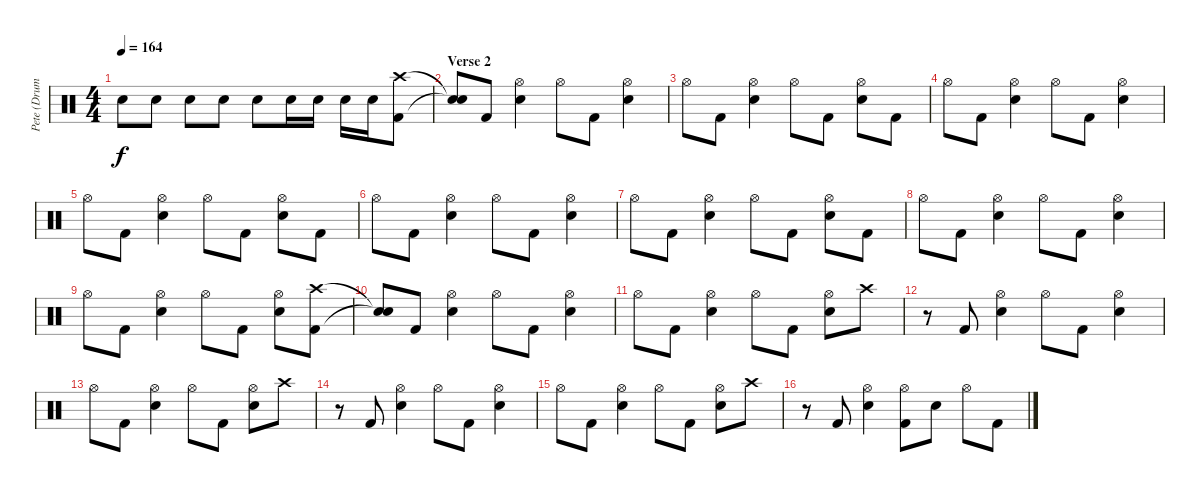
\track ("Pete (Drums)" "Pete (Drum") {instrument percussion}
\staff {score}
\articulation defaults
\ts (4 4)
\tempo 164
\clef neutral
\ks c "Snare (hit) 2".8{dy f} "Snare (hit) 2".8 "Snare (hit) 2".8 "Snare (hit) 2".8 "Snare (hit) 2".8 "Snare (hit) 2".16 "Snare (hit) 2".16 "Snare (hit) 2".16 "Snare (hit) 2".16
("Crash high (hit)" "Kick (hit) 2").8 |
\section ("" "Verse 2")
("Snare (hit)"{t} "Snare (hit)"{t}).8 "Kick (hit) 2".8 ("Hi-Hat (open)" "Snare (hit) 2").4 "Hi-Hat (open)".8 "Kick (hit) 2".8 ("Hi-Hat (open)" "Snare (hit) 2").4 |
"Hi-Hat (open)".8 "Kick (hit) 2".8 ("Hi-Hat (open)" "Snare (hit) 2").4 "Hi-Hat (open)".8 "Kick (hit) 2".8 ("Hi-Hat (open)" "Snare (hit) 2").8 "Kick (hit) 2".8 |
"Hi-Hat (open)".8 "Kick (hit) 2".8 ("Hi-Hat (open)" "Snare (hit) 2").4 "Hi-Hat (open)".8 "Kick (hit) 2".8 ("Hi-Hat (open)" "Snare (hit) 2").4 |
"Hi-Hat (open)".8 "Kick (hit) 2".8 ("Hi-Hat (open)" "Snare (hit) 2").4 "Hi-Hat (open)".8 "Kick (hit) 2".8 ("Hi-Hat (open)" "Snare (hit) 2").8 "Kick (hit) 2".8 |
"Hi-Hat (open)".8 "Kick (hit) 2".8 ("Hi-Hat (open)" "Snare (hit) 2").4 "Hi-Hat (open)".8 "Kick (hit) 2".8 ("Hi-Hat (open)" "Snare (hit) 2").4 |
"Hi-Hat (open)".8 "Kick (hit) 2".8 ("Hi-Hat (open)" "Snare (hit) 2").4 "Hi-Hat (open)".8 "Kick (hit) 2".8 ("Hi-Hat (open)" "Snare (hit) 2").8 "Kick (hit) 2".8 |
"Hi-Hat (open)".8 "Kick (hit) 2".8 ("Hi-Hat (open)" "Snare (hit) 2").4 "Hi-Hat (open)".8 "Kick (hit) 2".8 ("Hi-Hat (open)" "Snare (hit) 2").4 |
"Hi-Hat (open)".8 "Kick (hit) 2".8 ("Hi-Hat (open)" "Snare (hit) 2").4 "Hi-Hat (open)".8 "Kick (hit) 2".8 ("Hi-Hat (open)" "Snare (hit) 2").8 ("Crash high (hit)" "Kick (hit) 2").8 |
("Snare (hit)"{t} "Snare (hit)"{t}).8 "Kick (hit) 2".8 ("Hi-Hat (open)" "Snare (hit) 2").4 "Hi-Hat (open)".8 "Kick (hit) 2".8 ("Hi-Hat (open)" "Snare (hit) 2").4 |
"Hi-Hat (open)".8 "Kick (hit) 2".8 ("Hi-Hat (open)" "Snare (hit) 2").4 "Hi-Hat (open)".8 "Kick (hit) 2".8 ("Hi-Hat (open)" "Snare (hit) 2").8 "Crash high (hit)".8 |
r.8 "Kick (hit) 2".8 ("Hi-Hat (open)" "Snare (hit) 2").4 "Hi-Hat (open)".8 "Kick (hit) 2".8 ("Hi-Hat (open)" "Snare (hit) 2").4 |
"Hi-Hat (open)".8 "Kick (hit) 2".8 ("Hi-Hat (open)" "Snare (hit) 2").4 "Hi-Hat (open)".8 "Kick (hit) 2".8 ("Hi-Hat (open)" "Snare (hit) 2").8 "Crash high (hit)".8 |
r.8 "Kick (hit) 2".8 ("Hi-Hat (open)" "Snare (hit) 2").4 "Hi-Hat (open)".8 "Kick (hit) 2".8 ("Hi-Hat (open)" "Snare (hit) 2").4 |
"Hi-Hat (open)".8 "Kick (hit) 2".8 ("Hi-Hat (open)" "Snare (hit) 2").4 "Hi-Hat (open)".8 "Kick (hit) 2".8 ("Hi-Hat (open)" "Snare (hit) 2").8 "Crash high (hit)".8 |
r.8 "Kick (hit) 2".8 ("Hi-Hat (open)" "Snare (hit) 2").4 ("Hi-Hat (open)" "Kick (hit) 2").8 "Snare (hit) 2".8 "Hi-Hat (open)".8 "Kick (hit) 2".8
